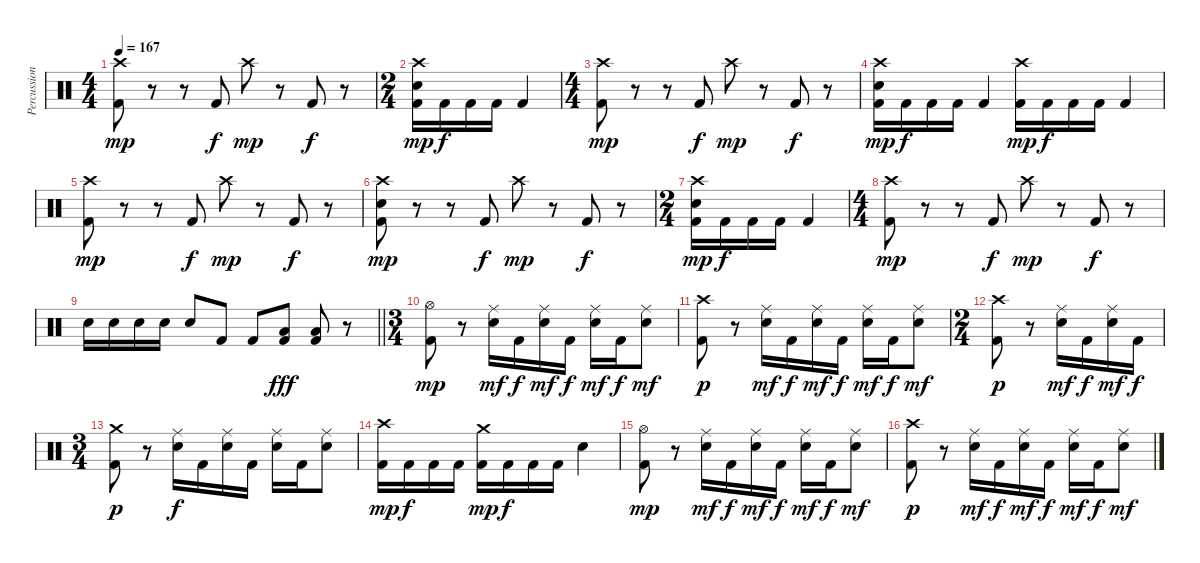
\track ("Percussion" "Percussion") {instrument percussion}
\staff {score}
\articulation defaults
\ts (4 4)
\tempo 167
\clef neutral
\ks c
("Crash high (hit)" "Kick (hit) 2").8{dy mp} r.8 r.8 "Kick (hit) 2".8{dy f} "Crash high (hit)".8{dy mp} r.8 "Kick (hit) 2".8{dy f} r.8 |
\ts (2 4)
("Crash high (hit)" "Snare (hit) 2" "Kick (hit) 2").16{dy mp} "Kick (hit) 2".16{dy f} "Kick (hit) 2".16 "Kick (hit) 2".16 "Kick (hit) 2".4 |
\ts (4 4)
("Crash high (hit)" "Kick (hit) 2").8{dy mp} r.8 r.8 "Kick (hit) 2".8{dy f} "Crash high (hit)".8{dy mp} r.8 "Kick (hit) 2".8{dy f} r.8 |
("Crash high (hit)" "Snare (hit) 2" "Kick (hit) 2").16{dy mp} "Kick (hit) 2".16{dy f} "Kick (hit) 2".16 "Kick (hit) 2".16 "Kick (hit) 2".4 ("Crash high (hit)" "Kick (hit) 2").16{dy mp} "Kick (hit) 2".16{dy f} "Kick (hit) 2".16 "Kick (hit) 2".16 "Kick (hit) 2".4 |
("Crash high (hit)" "Kick (hit) 2").8{dy mp} r.8 r.8 "Kick (hit) 2".8{dy f} "Crash high (hit)".8{dy mp} r.8 "Kick (hit) 2".8{dy f} r.8 |
("Crash high (hit)" "Snare (hit) 2" "Kick (hit) 2").8{dy mp} r.8 r.8 "Kick (hit) 2".8{dy f} "Crash high (hit)".8{dy mp} r.8 "Kick (hit) 2".8{dy f} r.8 |
\ts (2 4)
("Crash high (hit)" "Snare (hit) 2" "Kick (hit) 2").16{dy mp} "Kick (hit) 2".16{dy f} "Kick (hit) 2".16 "Kick (hit) 2".16 "Kick (hit) 2".4 |
\ts (4 4)
("Crash high (hit)" "Kick (hit) 2").8{dy mp} r.8 r.8 "Kick (hit) 2".8{dy f} "Crash high (hit)".8{dy mp} r.8 "Kick (hit) 2".8{dy f} r.8 |
\barLineRight lightlight "Snare (hit) 2".16 "Snare (hit) 2".16 "Snare (hit) 2".16 "Snare (hit) 2".16 "Snare (hit) 2".8 "Kick (hit) 2".8 "Kick (hit) 2".8
("Low Tom (hit)" "Kick (hit) 2").8{dy fff} ("Low Tom (hit)" "Kick (hit) 2").8 r.8 |
\ts (3 4)
("Hi-Hat (open)" "Kick (hit) 2").8{dy mp} r.8 ("Ride (middle)" "Snare (hit) 2").16{dy mf} "Kick (hit) 2".16{dy f} ("Ride (middle)" "Snare (hit) 2").16{dy mf} "Kick (hit) 2".16{dy f} ("Ride (middle)" "Snare (hit) 2").16{dy mf} "Kick (hit) 2".16{dy f} ("Ride (middle)" "Snare (hit) 2").8{dy mf} |
("Crash high (hit)" "Kick (hit) 2").8{dy p} r.8 ("Ride (middle)" "Snare (hit) 2").16{dy mf} "Kick (hit) 2".16{dy f} ("Ride (middle)" "Snare (hit) 2").16{dy mf} "Kick (hit) 2".16{dy f} ("Ride (middle)" "Snare (hit) 2").16{dy mf} "Kick (hit) 2".16{dy f} ("Ride (middle)" "Snare (hit) 2").8{dy mf} |
\ts (2 4)
("Crash high (hit)" "Kick (hit) 2").8{dy p} r.8 ("Ride (middle)" "Snare (hit) 2").16{dy mf} "Kick (hit) 2".16{dy f} ("Ride (middle)" "Snare (hit) 2").16{dy mf} "Kick (hit) 2".16{dy f} |
\ts (3 4)
("Crash medium (hit)" "Kick (hit) 2").8{dy p} r.8 ("Ride (middle)" "Snare (hit) 2").16{dy f} "Kick (hit) 2".16 ("Ride (middle)" "Snare (hit) 2").16 "Kick (hit) 2".16 ("Ride (middle)" "Snare (hit) 2").16 "Kick (hit) 2".16 ("Ride (middle)" "Snare (hit) 2").8 |
("Crash high (hit)" "Kick (hit) 2").16{dy mp} "Kick (hit) 2".16{dy f} "Kick (hit) 2".16 "Kick (hit) 2".16 ("Crash medium (hit)" "Kick (hit) 2").16{dy mp} "Kick (hit) 2".16{dy f} "Kick (hit) 2".16 "Kick (hit) 2".16 "Snare (hit) 2".4 |
("Hi-Hat (open)" "Kick (hit) 2").8{dy mp} r.8 ("Ride (middle)" "Snare (hit) 2").16{dy mf} "Kick (hit) 2".16{dy f} ("Ride (middle)" "Snare (hit) 2").16{dy mf} "Kick (hit) 2".16{dy f} ("Ride (middle)" "Snare (hit) 2").16{dy mf} "Kick (hit) 2".16{dy f} ("Ride (middle)" "Snare (hit) 2").8{dy mf} |
("Crash high (hit)" "Kick (hit) 2").8{dy p} r.8 ("Ride (middle)" "Snare (hit) 2").16{dy mf} "Kick (hit) 2".16{dy f} ("Ride (middle)" "Snare (hit) 2").16{dy mf} "Kick (hit) 2".16{dy f} ("Ride (middle)" "Snare (hit) 2").16{dy mf} "Kick (hit) 2".16{dy f} ("Ride (middle)" "Snare (hit) 2").8{dy mf}
